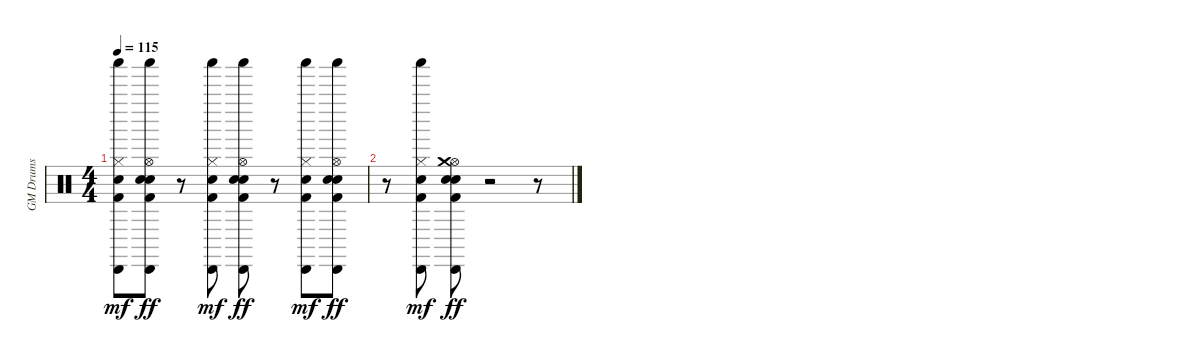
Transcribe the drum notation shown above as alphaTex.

\track ("GM Drums" "GM Drums") {instrument percussion}
\staff {score}
\articulation defaults
\ts (4 4)
\tempo 115
\clef neutral
\ks c
("Hi-Hat (closed)" "Kick (hit) 2" "Snare (hit) 2" "Cabasa (hit)" "Shaker (hit)").8{dy mf} ("Kick (hit) 2" "Snare (hit) 2" "Hand Clap (hit)" "Hi-Hat (open)" "Cabasa (hit)" "Shaker (hit)").8{dy ff} r.8 ("Hi-Hat (closed)" "Kick (hit) 2" "Snare (hit) 2" "Cabasa (hit)" "Shaker (hit)").8{dy mf} ("Kick (hit) 2" "Snare (hit) 2" "Hand Clap (hit)" "Hi-Hat (open)" "Cabasa (hit)" "Shaker (hit)").8{dy ff} r.8 ("Hi-Hat (closed)" "Kick (hit) 2" "Snare (hit) 2" "Cabasa (hit)" "Shaker (hit)").8{dy mf} ("Kick (hit) 2" "Snare (hit) 2" "Hand Clap (hit)" "Hi-Hat (open)" "Cabasa (hit)" "Shaker (hit)").8{dy ff} |
r.8 ("Hi-Hat (closed)" "Kick (hit) 2" "Snare (hit) 2" "Cabasa (hit)" "Shaker (hit)").8{dy mf} ("Kick (hit) 2" "Snare (hit) 2" "Hand Clap (hit)" "Hi-Hat (open)" "Crash medium (hit)" "Cabasa (hit)").8{dy ff} r.2 r.8
